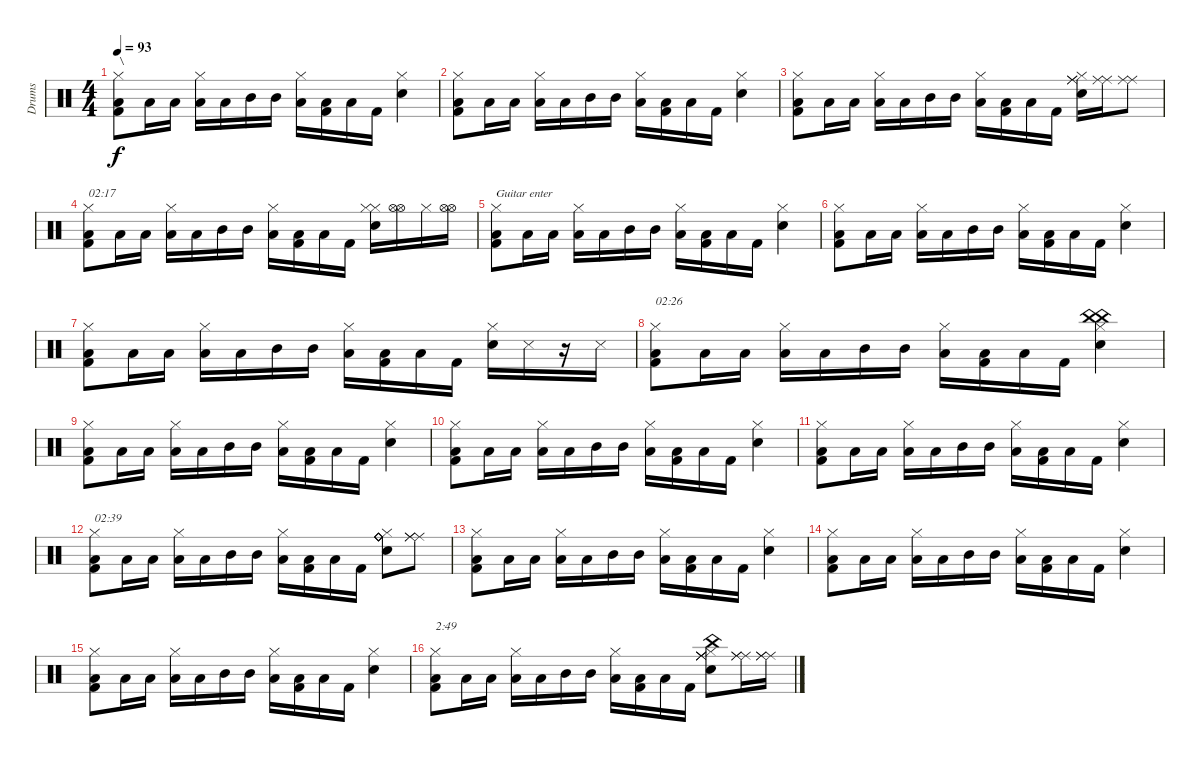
\track ("Drums" "Drums") {instrument percussion}
\staff {score}
\articulation defaults
\ts (4 4)
\tempo 93
\clef neutral
\ks c
("Hi-Hat (closed)" "Low Floor Tom (hit)" "Kick (hit) 2").8{txt "\\" dy f} "Low Floor Tom (hit)".16 "Low Tom (hit)".16 ("Hi-Hat (closed)" "Low Tom (hit)").16 "Low Floor Tom (hit)".16 "Mid Tom (hit)".16 "Mid Tom (hit)".16 ("Hi-Hat (closed)" "Low Floor Tom (hit)").16 ("Low Tom (hit)" "Kick (hit) 2").16 "Low Floor Tom (hit)".16 "Kick (hit) 2".16 ("Hi-Hat (closed)" "Snare (hit) 2").4 |
("Hi-Hat (closed)" "Low Floor Tom (hit)" "Kick (hit) 2").8 "Low Floor Tom (hit)".16 "Low Tom (hit)".16 ("Hi-Hat (closed)" "Low Tom (hit)").16 "Low Floor Tom (hit)".16 "Mid Tom (hit)".16 "Mid Tom (hit)".16 ("Hi-Hat (closed)" "Low Floor Tom (hit)").16 ("Low Tom (hit)" "Kick (hit) 2").16 "Low Floor Tom (hit)".16 "Kick (hit) 2".16 ("Hi-Hat (closed)" "Snare (hit) 2").4 |
("Hi-Hat (closed)" "Low Floor Tom (hit)" "Kick (hit) 2").8 "Low Floor Tom (hit)".16 "Low Tom (hit)".16 ("Hi-Hat (closed)" "Low Tom (hit)").16 "Low Floor Tom (hit)".16 "Mid Tom (hit)".16 "Mid Tom (hit)".16 ("Hi-Hat (closed)" "Low Floor Tom (hit)").16 ("Low Tom (hit)" "Kick (hit) 2").16 "Low Floor Tom (hit)".16 "Kick (hit) 2".16 ("Hi-Hat (closed)" "Ride (middle)" "Ride (middle)" "Snare (hit) 2").16 ("Ride (middle)" "Ride (middle)").16 ("Ride (middle)" "Ride (middle)").8 |
("Hi-Hat (closed)" "Low Floor Tom (hit)" "Kick (hit) 2").8{txt "02:17"} "Low Floor Tom (hit)".16 "Low Tom (hit)".16 ("Hi-Hat (closed)" "Low Tom (hit)").16 "Low Floor Tom (hit)".16 "Mid Tom (hit)".16 "Mid Tom (hit)".16 ("Hi-Hat (closed)" "Low Floor Tom (hit)").16 ("Low Tom (hit)" "Kick (hit) 2").16 "Low Floor Tom (hit)".16 "Kick (hit) 2".16 ("Hi-Hat (closed)" "Hi-Hat (closed)" "Snare (hit) 2").16 ("Hi-Hat (open)" "Hi-Hat (open)").16 "Hi-Hat (closed)".16 ("Hi-Hat (open)" "Hi-Hat (open)").16 |
("Hi-Hat (closed)" "Low Floor Tom (hit)" "Kick (hit) 2").8{txt "Guitar enter"} "Low Floor Tom (hit)".16 "Low Tom (hit)".16 ("Hi-Hat (closed)" "Low Tom (hit)").16 "Low Floor Tom (hit)".16 "Mid Tom (hit)".16 "Mid Tom (hit)".16 ("Hi-Hat (closed)" "Low Floor Tom (hit)").16 ("Low Tom (hit)" "Kick (hit) 2").16 "Low Floor Tom (hit)".16 "Kick (hit) 2".16 ("Hi-Hat (closed)" "Snare (hit) 2").4 |
("Hi-Hat (closed)" "Low Floor Tom (hit)" "Kick (hit) 2").8 "Low Floor Tom (hit)".16 "Low Tom (hit)".16 ("Hi-Hat (closed)" "Low Tom (hit)").16 "Low Floor Tom (hit)".16 "Mid Tom (hit)".16 "Mid Tom (hit)".16 ("Hi-Hat (closed)" "Low Floor Tom (hit)").16 ("Low Tom (hit)" "Kick (hit) 2").16 "Low Floor Tom (hit)".16 "Kick (hit) 2".16 ("Hi-Hat (closed)" "Snare (hit) 2").4 |
("Hi-Hat (closed)" "Low Floor Tom (hit)" "Kick (hit) 2").8 "Low Floor Tom (hit)".16 "Low Tom (hit)".16 ("Hi-Hat (closed)" "Low Tom (hit)").16 "Low Floor Tom (hit)".16 "Mid Tom (hit)".16 "Mid Tom (hit)".16 ("Hi-Hat (closed)" "Low Floor Tom (hit)").16 ("Low Tom (hit)" "Kick (hit) 2").16 "Low Floor Tom (hit)".16 "Kick (hit) 2".16 ("Hi-Hat (closed)" "Snare (hit) 2").16 "Snare (side stick) 3".16 r.16 "Snare (side stick) 3".16 |
("Hi-Hat (closed)" "Low Floor Tom (hit)" "Kick (hit) 2").8{txt "02:26"} "Low Floor Tom (hit)".16 "Low Tom (hit)".16 ("Hi-Hat (closed)" "Low Tom (hit)").16 "Low Floor Tom (hit)".16 "Mid Tom (hit)".16 "Mid Tom (hit)".16 ("Hi-Hat (closed)" "Low Floor Tom (hit)").16 ("Low Tom (hit)" "Kick (hit) 2").16 "Low Floor Tom (hit)".16 "Kick (hit) 2".16 ("Hi-Hat (closed)" "China (hit)" "China (hit)" "Snare (hit) 2").4 |
("Hi-Hat (closed)" "Low Floor Tom (hit)" "Kick (hit) 2").8 "Low Floor Tom (hit)".16 "Low Tom (hit)".16 ("Hi-Hat (closed)" "Low Tom (hit)").16 "Low Floor Tom (hit)".16 "Mid Tom (hit)".16 "Mid Tom (hit)".16 ("Hi-Hat (closed)" "Low Floor Tom (hit)").16 ("Low Tom (hit)" "Kick (hit) 2").16 "Low Floor Tom (hit)".16 "Kick (hit) 2".16 ("Hi-Hat (closed)" "Snare (hit) 2").4 |
("Hi-Hat (closed)" "Low Floor Tom (hit)" "Kick (hit) 2").8 "Low Floor Tom (hit)".16 "Low Tom (hit)".16 ("Hi-Hat (closed)" "Low Tom (hit)").16 "Low Floor Tom (hit)".16 "Mid Tom (hit)".16 "Mid Tom (hit)".16 ("Hi-Hat (closed)" "Low Floor Tom (hit)").16 ("Low Tom (hit)" "Kick (hit) 2").16 "Low Floor Tom (hit)".16 "Kick (hit) 2".16 ("Hi-Hat (closed)" "Snare (hit) 2").4 |
("Hi-Hat (closed)" "Low Floor Tom (hit)" "Kick (hit) 2").8 "Low Floor Tom (hit)".16 "Low Tom (hit)".16 ("Hi-Hat (closed)" "Low Tom (hit)").16 "Low Floor Tom (hit)".16 "Mid Tom (hit)".16 "Mid Tom (hit)".16 ("Hi-Hat (closed)" "Low Floor Tom (hit)").16 ("Low Tom (hit)" "Kick (hit) 2").16 "Low Floor Tom (hit)".16 "Kick (hit) 2".16 ("Hi-Hat (closed)" "Snare (hit) 2").4 |
("Hi-Hat (closed)" "Low Floor Tom (hit)" "Kick (hit) 2").8{txt "02:39"} "Low Floor Tom (hit)".16 "Low Tom (hit)".16 ("Hi-Hat (closed)" "Low Tom (hit)").16 "Low Floor Tom (hit)".16 "Mid Tom (hit)".16 "Mid Tom (hit)".16 ("Hi-Hat (closed)" "Low Floor Tom (hit)").16 ("Low Tom (hit)" "Kick (hit) 2").16 "Low Floor Tom (hit)".16 "Kick (hit) 2".16 ("Hi-Hat (closed)" "Ride (bell)" "Ride (bell)" "Ride (bell)" "Snare (hit) 2").8 ("Ride (middle)" "Ride (middle)" "Ride (middle)").8 |
("Hi-Hat (closed)" "Low Floor Tom (hit)" "Kick (hit) 2").8 "Low Floor Tom (hit)".16 "Low Tom (hit)".16 ("Hi-Hat (closed)" "Low Tom (hit)").16 "Low Floor Tom (hit)".16 "Mid Tom (hit)".16 "Mid Tom (hit)".16 ("Hi-Hat (closed)" "Low Floor Tom (hit)").16 ("Low Tom (hit)" "Kick (hit) 2").16 "Low Floor Tom (hit)".16 "Kick (hit) 2".16 ("Hi-Hat (closed)" "Snare (hit) 2").4 |
("Hi-Hat (closed)" "Low Floor Tom (hit)" "Kick (hit) 2").8 "Low Floor Tom (hit)".16 "Low Tom (hit)".16 ("Hi-Hat (closed)" "Low Tom (hit)").16 "Low Floor Tom (hit)".16 "Mid Tom (hit)".16 "Mid Tom (hit)".16 ("Hi-Hat (closed)" "Low Floor Tom (hit)").16 ("Low Tom (hit)" "Kick (hit) 2").16 "Low Floor Tom (hit)".16 "Kick (hit) 2".16 ("Hi-Hat (closed)" "Snare (hit) 2").4 |
("Hi-Hat (closed)" "Low Floor Tom (hit)" "Kick (hit) 2").8 "Low Floor Tom (hit)".16 "Low Tom (hit)".16 ("Hi-Hat (closed)" "Low Tom (hit)").16 "Low Floor Tom (hit)".16 "Mid Tom (hit)".16 "Mid Tom (hit)".16 ("Hi-Hat (closed)" "Low Floor Tom (hit)").16 ("Low Tom (hit)" "Kick (hit) 2").16 "Low Floor Tom (hit)".16 "Kick (hit) 2".16 ("Hi-Hat (closed)" "Snare (hit) 2").4 |
("Hi-Hat (closed)" "Low Floor Tom (hit)" "Kick (hit) 2").8{txt "2:49"} "Low Floor Tom (hit)".16 "Low Tom (hit)".16 ("Hi-Hat (closed)" "Low Tom (hit)").16 "Low Floor Tom (hit)".16 "Mid Tom (hit)".16 "Mid Tom (hit)".16 ("Hi-Hat (closed)" "Low Floor Tom (hit)").16 ("Low Tom (hit)" "Kick (hit) 2").16 "Low Floor Tom (hit)".16 "Kick (hit) 2".16 ("Hi-Hat (closed)" "Ride (middle)" "Ride (middle)" "Ride (middle)" "Snare (hit) 2" "China (hit)").8 ("Ride (middle)" "Ride (middle)" "Ride (middle)").16 ("Ride (middle)" "Ride (middle)" "Ride (middle)").16
